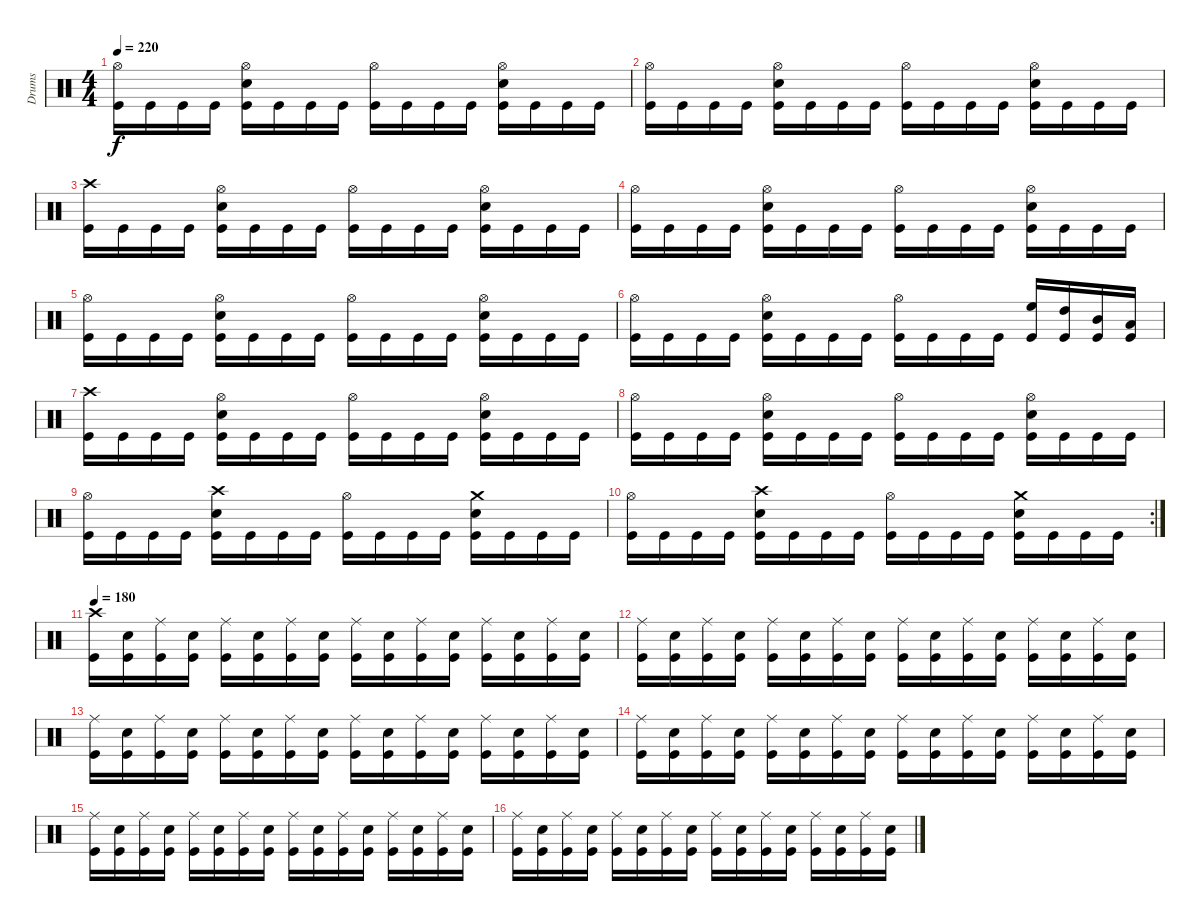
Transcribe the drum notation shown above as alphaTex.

\track ("Drums" "Drums") {instrument percussion}
\staff {score}
\articulation defaults
\ts (4 4)
\tempo 220
\clef neutral
\ks c
("Hi-Hat (open)" "Kick (hit)").16{dy f} "Kick (hit)".16 "Kick (hit)".16 "Kick (hit)".16 ("Hi-Hat (open)" "Snare (hit) 2" "Kick (hit)").16 "Kick (hit)".16 "Kick (hit)".16 "Kick (hit)".16 ("Hi-Hat (open)" "Kick (hit)").16 "Kick (hit)".16 "Kick (hit)".16 "Kick (hit)".16 ("Hi-Hat (open)" "Snare (hit) 2" "Kick (hit)").16 "Kick (hit)".16 "Kick (hit)".16 "Kick (hit)".16 |
("Hi-Hat (open)" "Kick (hit)").16 "Kick (hit)".16 "Kick (hit)".16 "Kick (hit)".16 ("Hi-Hat (open)" "Snare (hit) 2" "Kick (hit)").16 "Kick (hit)".16 "Kick (hit)".16 "Kick (hit)".16 ("Hi-Hat (open)" "Kick (hit)").16 "Kick (hit)".16 "Kick (hit)".16 "Kick (hit)".16 ("Hi-Hat (open)" "Snare (hit) 2" "Kick (hit)").16 "Kick (hit)".16 "Kick (hit)".16 "Kick (hit)".16 |
("Crash high (hit)" "Kick (hit)").16 "Kick (hit)".16 "Kick (hit)".16 "Kick (hit)".16 ("Hi-Hat (open)" "Snare (hit) 2" "Kick (hit)").16 "Kick (hit)".16 "Kick (hit)".16 "Kick (hit)".16 ("Hi-Hat (open)" "Kick (hit)").16 "Kick (hit)".16 "Kick (hit)".16 "Kick (hit)".16 ("Hi-Hat (open)" "Snare (hit) 2" "Kick (hit)").16 "Kick (hit)".16 "Kick (hit)".16 "Kick (hit)".16 |
("Hi-Hat (open)" "Kick (hit)").16 "Kick (hit)".16 "Kick (hit)".16 "Kick (hit)".16 ("Hi-Hat (open)" "Snare (hit) 2" "Kick (hit)").16 "Kick (hit)".16 "Kick (hit)".16 "Kick (hit)".16 ("Hi-Hat (open)" "Kick (hit)").16 "Kick (hit)".16 "Kick (hit)".16 "Kick (hit)".16 ("Hi-Hat (open)" "Snare (hit) 2" "Kick (hit)").16 "Kick (hit)".16 "Kick (hit)".16 "Kick (hit)".16 |
("Hi-Hat (open)" "Kick (hit)").16 "Kick (hit)".16 "Kick (hit)".16 "Kick (hit)".16 ("Hi-Hat (open)" "Snare (hit) 2" "Kick (hit)").16 "Kick (hit)".16 "Kick (hit)".16 "Kick (hit)".16 ("Hi-Hat (open)" "Kick (hit)").16 "Kick (hit)".16 "Kick (hit)".16 "Kick (hit)".16 ("Hi-Hat (open)" "Snare (hit) 2" "Kick (hit)").16 "Kick (hit)".16 "Kick (hit)".16 "Kick (hit)".16 |
("Hi-Hat (open)" "Kick (hit)").16 "Kick (hit)".16 "Kick (hit)".16 "Kick (hit)".16 ("Hi-Hat (open)" "Snare (hit) 2" "Kick (hit)").16 "Kick (hit)".16 "Kick (hit)".16 "Kick (hit)".16 ("Hi-Hat (open)" "Kick (hit)").16 "Kick (hit)".16 "Kick (hit)".16 "Kick (hit)".16 ("High Floor Tom (hit)" "Kick (hit)").16 ("High Tom (hit)" "Kick (hit)").16 ("Mid Tom (hit)" "Kick (hit)").16 ("Low Tom (hit)" "Kick (hit)").16 |
("Crash high (hit)" "Kick (hit)").16 "Kick (hit)".16 "Kick (hit)".16 "Kick (hit)".16 ("Hi-Hat (open)" "Snare (hit) 2" "Kick (hit)").16 "Kick (hit)".16 "Kick (hit)".16 "Kick (hit)".16 ("Hi-Hat (open)" "Kick (hit)").16 "Kick (hit)".16 "Kick (hit)".16 "Kick (hit)".16 ("Hi-Hat (open)" "Snare (hit) 2" "Kick (hit)").16 "Kick (hit)".16 "Kick (hit)".16 "Kick (hit)".16 |
("Hi-Hat (open)" "Kick (hit)").16 "Kick (hit)".16 "Kick (hit)".16 "Kick (hit)".16 ("Hi-Hat (open)" "Snare (hit) 2" "Kick (hit)").16 "Kick (hit)".16 "Kick (hit)".16 "Kick (hit)".16 ("Hi-Hat (open)" "Kick (hit)").16 "Kick (hit)".16 "Kick (hit)".16 "Kick (hit)".16 ("Hi-Hat (open)" "Snare (hit) 2" "Kick (hit)").16 "Kick (hit)".16 "Kick (hit)".16 "Kick (hit)".16 |
("Hi-Hat (open)" "Kick (hit)").16 "Kick (hit)".16 "Kick (hit)".16 "Kick (hit)".16 ("Crash high (hit)" "Snare (hit) 2" "Kick (hit)").16 "Kick (hit)".16 "Kick (hit)".16 "Kick (hit)".16 ("Hi-Hat (open)" "Kick (hit)").16 "Kick (hit)".16 "Kick (hit)".16 "Kick (hit)".16 ("Crash medium (hit)" "Snare (hit) 2" "Kick (hit)").16 "Kick (hit)".16 "Kick (hit)".16 "Kick (hit)".16 |
\rc 2
("Hi-Hat (open)" "Kick (hit)").16 "Kick (hit)".16 "Kick (hit)".16 "Kick (hit)".16 ("Crash high (hit)" "Snare (hit) 2" "Kick (hit)").16 "Kick (hit)".16 "Kick (hit)".16 "Kick (hit)".16 ("Hi-Hat (open)" "Kick (hit)").16 "Kick (hit)".16 "Kick (hit)".16 "Kick (hit)".16 ("Crash medium (hit)" "Snare (hit) 2" "Kick (hit)").16 "Kick (hit)".16 "Kick (hit)".16 "Kick (hit)".16 |
\tempo 180
("Crash high (hit)" "Kick (hit)").16 ("Snare (hit) 2" "Kick (hit)").16 ("Ride (middle)" "Kick (hit)").16 ("Snare (hit) 2" "Kick (hit)").16 ("Ride (middle)" "Kick (hit)").16 ("Snare (hit) 2" "Kick (hit)").16 ("Ride (middle)" "Kick (hit)").16 ("Snare (hit) 2" "Kick (hit)").16 ("Ride (middle)" "Kick (hit)").16 ("Snare (hit) 2" "Kick (hit)").16 ("Ride (middle)" "Kick (hit)").16 ("Snare (hit) 2" "Kick (hit)").16 ("Ride (middle)" "Kick (hit)").16 ("Snare (hit) 2" "Kick (hit)").16 ("Ride (middle)" "Kick (hit)").16 ("Snare (hit) 2" "Kick (hit)").16 |
("Ride (middle)" "Kick (hit)").16 ("Snare (hit) 2" "Kick (hit)").16 ("Ride (middle)" "Kick (hit)").16 ("Snare (hit) 2" "Kick (hit)").16 ("Ride (middle)" "Kick (hit)").16 ("Snare (hit) 2" "Kick (hit)").16 ("Ride (middle)" "Kick (hit)").16 ("Snare (hit) 2" "Kick (hit)").16 ("Ride (middle)" "Kick (hit)").16 ("Snare (hit) 2" "Kick (hit)").16 ("Ride (middle)" "Kick (hit)").16 ("Snare (hit) 2" "Kick (hit)").16 ("Ride (middle)" "Kick (hit)").16 ("Snare (hit) 2" "Kick (hit)").16 ("Ride (middle)" "Kick (hit)").16 ("Snare (hit) 2" "Kick (hit)").16 |
("Ride (middle)" "Kick (hit)").16 ("Snare (hit) 2" "Kick (hit)").16 ("Ride (middle)" "Kick (hit)").16 ("Snare (hit) 2" "Kick (hit)").16 ("Ride (middle)" "Kick (hit)").16 ("Snare (hit) 2" "Kick (hit)").16 ("Ride (middle)" "Kick (hit)").16 ("Snare (hit) 2" "Kick (hit)").16 ("Ride (middle)" "Kick (hit)").16 ("Snare (hit) 2" "Kick (hit)").16 ("Ride (middle)" "Kick (hit)").16 ("Snare (hit) 2" "Kick (hit)").16 ("Ride (middle)" "Kick (hit)").16 ("Snare (hit) 2" "Kick (hit)").16 ("Ride (middle)" "Kick (hit)").16 ("Snare (hit) 2" "Kick (hit)").16 |
("Ride (middle)" "Kick (hit)").16 ("Snare (hit) 2" "Kick (hit)").16 ("Ride (middle)" "Kick (hit)").16 ("Snare (hit) 2" "Kick (hit)").16 ("Ride (middle)" "Kick (hit)").16 ("Snare (hit) 2" "Kick (hit)").16 ("Ride (middle)" "Kick (hit)").16 ("Snare (hit) 2" "Kick (hit)").16 ("Ride (middle)" "Kick (hit)").16 ("Snare (hit) 2" "Kick (hit)").16 ("Ride (middle)" "Kick (hit)").16 ("Snare (hit) 2" "Kick (hit)").16 ("Ride (middle)" "Kick (hit)").16 ("Snare (hit) 2" "Kick (hit)").16 ("Ride (middle)" "Kick (hit)").16 ("Snare (hit) 2" "Kick (hit)").16 |
("Ride (middle)" "Kick (hit)").16 ("Snare (hit) 2" "Kick (hit)").16 ("Ride (middle)" "Kick (hit)").16 ("Snare (hit) 2" "Kick (hit)").16 ("Ride (middle)" "Kick (hit)").16 ("Snare (hit) 2" "Kick (hit)").16 ("Ride (middle)" "Kick (hit)").16 ("Snare (hit) 2" "Kick (hit)").16 ("Ride (middle)" "Kick (hit)").16 ("Snare (hit) 2" "Kick (hit)").16 ("Ride (middle)" "Kick (hit)").16 ("Snare (hit) 2" "Kick (hit)").16 ("Ride (middle)" "Kick (hit)").16 ("Snare (hit) 2" "Kick (hit)").16 ("Ride (middle)" "Kick (hit)").16 ("Snare (hit) 2" "Kick (hit)").16 |
("Ride (middle)" "Kick (hit)").16 ("Snare (hit) 2" "Kick (hit)").16 ("Ride (middle)" "Kick (hit)").16 ("Snare (hit) 2" "Kick (hit)").16 ("Ride (middle)" "Kick (hit)").16 ("Snare (hit) 2" "Kick (hit)").16 ("Ride (middle)" "Kick (hit)").16 ("Snare (hit) 2" "Kick (hit)").16 ("Ride (middle)" "Kick (hit)").16 ("Snare (hit) 2" "Kick (hit)").16 ("Ride (middle)" "Kick (hit)").16 ("Snare (hit) 2" "Kick (hit)").16 ("Ride (middle)" "Kick (hit)").16 ("Snare (hit) 2" "Kick (hit)").16 ("Ride (middle)" "Kick (hit)").16 ("Snare (hit) 2" "Kick (hit)").16
